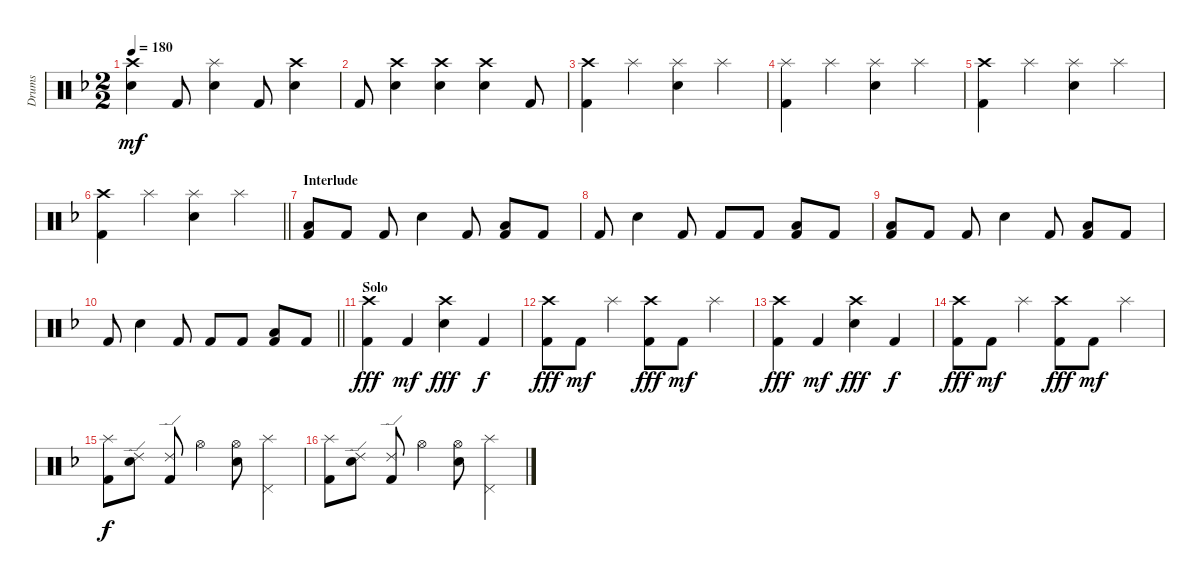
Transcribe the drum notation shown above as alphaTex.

\track ("Drums" "Drums") {instrument percussion}
\staff {score}
\articulation defaults
\ts (2 2)
\tempo 180
\clef neutral
\ks dminor
("Crash high (hit)" "Snare (hit) 2").4{dy mf} "Kick (hit) 2".8 ("Splash (hit)" "Snare (hit) 2").4 "Kick (hit) 2".8 ("Snare (hit) 2" "Crash high (hit)").4 |
"Kick (hit) 2".8 ("Crash high (hit)" "Snare (hit) 2").4 ("Crash high (hit)" "Snare (hit) 2").4 ("Crash high (hit)" "Snare (hit) 2").4 "Kick (hit) 2".8 |
("Crash high (hit)" "Kick (hit) 2").4 "Splash (hit)".4 ("Splash (hit)" "Snare (hit) 2").4 "Splash (hit)".4 |
("Splash (hit)" "Kick (hit) 2").4 "Splash (hit)".4 ("Splash (hit)" "Snare (hit) 2").4 "Splash (hit)".4 |
("Crash high (hit)" "Kick (hit) 2").4 "Splash (hit)".4 ("Splash (hit)" "Snare (hit) 2").4 "Splash (hit)".4 |
\barLineRight lightlight
("Crash high (hit)" "Kick (hit) 2").4 "Splash (hit)".4 ("Splash (hit)" "Snare (hit) 2").4 "Splash (hit)".4 |
\section ("" "Interlude")
("Low Floor Tom (hit)" "Kick (hit) 2").8 "Kick (hit) 2".8 "Kick (hit) 2".8 "Snare (hit) 2".4 "Kick (hit) 2".8 ("Low Floor Tom (hit)" "Kick (hit) 2").8 "Kick (hit) 2".8 |
"Kick (hit) 2".8 "Snare (hit) 2".4 "Kick (hit) 2".8 "Kick (hit) 2".8 "Kick (hit) 2".8 ("Kick (hit) 2" "Low Floor Tom (hit)").8 "Kick (hit) 2".8 |
("Low Floor Tom (hit)" "Kick (hit) 2").8 "Kick (hit) 2".8 "Kick (hit) 2".8 "Snare (hit) 2".4 "Kick (hit) 2".8 ("Low Floor Tom (hit)" "Kick (hit) 2").8 "Kick (hit) 2".8 |
\barLineRight lightlight "Kick (hit) 2".8 "Snare (hit) 2".4 "Kick (hit) 2".8 "Kick (hit) 2".8 "Kick (hit) 2".8
("Kick (hit) 2" "Low Floor Tom (hit)").8 "Kick (hit) 2".8 |
\section ("" "Solo")
("Crash high (hit)" "Kick (hit) 2").4{dy fff} "Kick (hit) 2".4{dy mf} ("Crash high (hit)" "Snare (hit) 2").4{dy fff} "Kick (hit) 2".4{dy f} |
("Crash high (hit)" "Kick (hit) 2").8{dy fff} "Kick (hit) 2".8{dy mf} "Splash (hit)".4 ("Crash high (hit)" "Kick (hit) 2").8{dy fff} "Kick (hit) 2".8{dy mf} "Splash (hit)".4 |
("Crash high (hit)" "Kick (hit) 2").4{dy fff} "Kick (hit) 2".4{dy mf} ("Crash high (hit)" "Snare (hit) 2").4{dy fff} "Kick (hit) 2".4{dy f} |
("Crash high (hit)" "Kick (hit) 2").8{dy fff} "Kick (hit) 2".8{dy mf} "Splash (hit)".4 ("Crash high (hit)" "Kick (hit) 2").8{dy fff} "Kick (hit) 2".8{dy mf} "Splash (hit)".4 |
("Splash (hit)" "Kick (hit) 2").8{dy f} ("Snare (hit) 2" "Ride (edge) 2").8 ("Ride (edge) 2" "Kick (hit) 2").8 "Hi-Hat (open)".4 ("Snare (hit) 2" "Hi-Hat (open)").8 ("Pedal Hi-Hat (hit)" "Splash (hit)").4 |
("Splash (hit)" "Kick (hit) 2").8 ("Snare (hit) 2" "Ride (edge) 2").8 ("Ride (edge) 2" "Kick (hit) 2").8 "Hi-Hat (open)".4 ("Snare (hit) 2" "Hi-Hat (open)").8 ("Pedal Hi-Hat (hit)" "Splash (hit)").4
